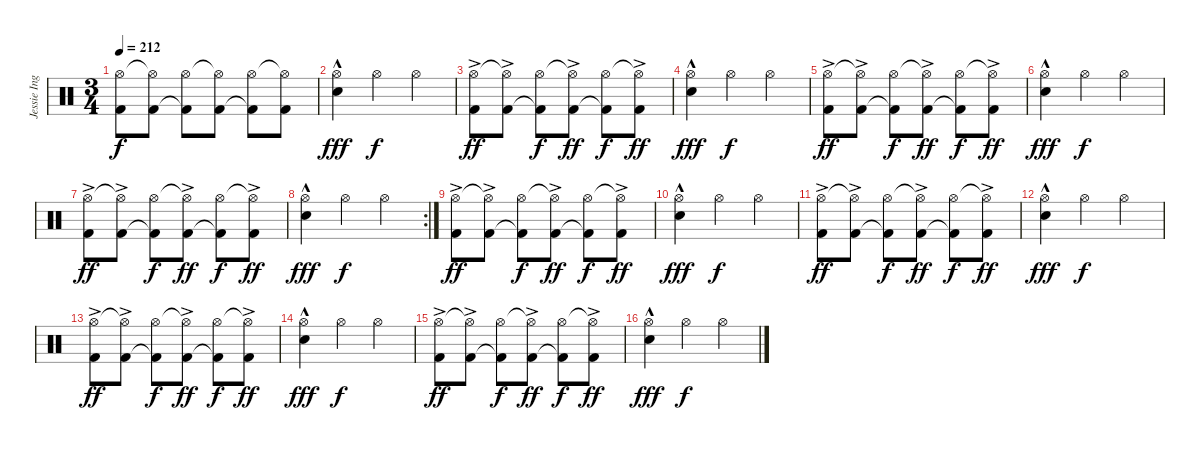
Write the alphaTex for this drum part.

\track ("Jessie Ingelevics" "Jessie Ing") {instrument percussion}
\staff {score}
\articulation defaults
\ts (3 4)
\tempo 212
\clef neutral
\ks c
("Hi-Hat (open)" "Kick (hit) 2").8{dy f} ("Hi-Hat (open)"{t} "Kick (hit) 2").8 ("Hi-Hat (open)" "Kick (hit) 2"{t}).8 ("Hi-Hat (open)"{t} "Kick (hit) 2").8 ("Hi-Hat (open)" "Kick (hit) 2"{t}).8 ("Hi-Hat (open)"{t} "Kick (hit) 2").8 |
("Hi-Hat (open)" "Electric Snare (hit)"{hac}).4{dy fff} "Hi-Hat (open)".4{dy f} "Hi-Hat (open)".4 |
("Hi-Hat (open)" "Kick (hit) 2"{ac}).8{dy ff} ("Hi-Hat (open)"{t} "Kick (hit) 2"{ac}).8 ("Hi-Hat (open)" "Kick (hit) 2"{t}).8{dy f} ("Hi-Hat (open)"{t} "Kick (hit) 2"{ac}).8{dy ff} ("Hi-Hat (open)" "Kick (hit) 2"{t}).8{dy f} ("Hi-Hat (open)"{t} "Kick (hit) 2"{ac}).8{dy ff} |
("Hi-Hat (open)" "Electric Snare (hit)"{hac}).4{dy fff} "Hi-Hat (open)".4{dy f} "Hi-Hat (open)".4 |
("Hi-Hat (open)" "Kick (hit) 2"{ac}).8{dy ff} ("Hi-Hat (open)"{t} "Kick (hit) 2"{ac}).8 ("Hi-Hat (open)" "Kick (hit) 2"{t}).8{dy f} ("Hi-Hat (open)"{t} "Kick (hit) 2"{ac}).8{dy ff} ("Hi-Hat (open)" "Kick (hit) 2"{t}).8{dy f} ("Hi-Hat (open)"{t} "Kick (hit) 2"{ac}).8{dy ff} |
("Hi-Hat (open)" "Electric Snare (hit)"{hac}).4{dy fff} "Hi-Hat (open)".4{dy f} "Hi-Hat (open)".4 |
("Hi-Hat (open)" "Kick (hit) 2"{ac}).8{dy ff} ("Hi-Hat (open)"{t} "Kick (hit) 2"{ac}).8 ("Hi-Hat (open)" "Kick (hit) 2"{t}).8{dy f} ("Hi-Hat (open)"{t} "Kick (hit) 2"{ac}).8{dy ff} ("Hi-Hat (open)" "Kick (hit) 2"{t}).8{dy f} ("Hi-Hat (open)"{t} "Kick (hit) 2"{ac}).8{dy ff} |
\rc 2
("Hi-Hat (open)" "Electric Snare (hit)"{hac}).4{dy fff} "Hi-Hat (open)".4{dy f} "Hi-Hat (open)".4 |
("Hi-Hat (open)" "Kick (hit) 2"{ac}).8{dy ff} ("Hi-Hat (open)"{t} "Kick (hit) 2"{ac}).8 ("Hi-Hat (open)" "Kick (hit) 2"{t}).8{dy f} ("Hi-Hat (open)"{t} "Kick (hit) 2"{ac}).8{dy ff} ("Hi-Hat (open)" "Kick (hit) 2"{t}).8{dy f} ("Hi-Hat (open)"{t} "Kick (hit) 2"{ac}).8{dy ff} |
("Hi-Hat (open)" "Electric Snare (hit)"{hac}).4{dy fff} "Hi-Hat (open)".4{dy f} "Hi-Hat (open)".4 |
("Hi-Hat (open)" "Kick (hit) 2"{ac}).8{dy ff} ("Hi-Hat (open)"{t} "Kick (hit) 2"{ac}).8 ("Hi-Hat (open)" "Kick (hit) 2"{t}).8{dy f} ("Hi-Hat (open)"{t} "Kick (hit) 2"{ac}).8{dy ff} ("Hi-Hat (open)" "Kick (hit) 2"{t}).8{dy f} ("Hi-Hat (open)"{t} "Kick (hit) 2"{ac}).8{dy ff} |
("Hi-Hat (open)" "Electric Snare (hit)"{hac}).4{dy fff} "Hi-Hat (open)".4{dy f} "Hi-Hat (open)".4 |
("Hi-Hat (open)" "Kick (hit) 2"{ac}).8{dy ff} ("Hi-Hat (open)"{t} "Kick (hit) 2"{ac}).8 ("Hi-Hat (open)" "Kick (hit) 2"{t}).8{dy f} ("Hi-Hat (open)"{t} "Kick (hit) 2"{ac}).8{dy ff} ("Hi-Hat (open)" "Kick (hit) 2"{t}).8{dy f} ("Hi-Hat (open)"{t} "Kick (hit) 2"{ac}).8{dy ff} |
("Hi-Hat (open)" "Electric Snare (hit)"{hac}).4{dy fff} "Hi-Hat (open)".4{dy f} "Hi-Hat (open)".4 |
("Hi-Hat (open)" "Kick (hit) 2"{ac}).8{dy ff} ("Hi-Hat (open)"{t} "Kick (hit) 2"{ac}).8 ("Hi-Hat (open)" "Kick (hit) 2"{t}).8{dy f} ("Hi-Hat (open)"{t} "Kick (hit) 2"{ac}).8{dy ff} ("Hi-Hat (open)" "Kick (hit) 2"{t}).8{dy f} ("Hi-Hat (open)"{t} "Kick (hit) 2"{ac}).8{dy ff} |
("Hi-Hat (open)" "Electric Snare (hit)"{hac}).4{dy fff} "Hi-Hat (open)".4{dy f} "Hi-Hat (open)".4
